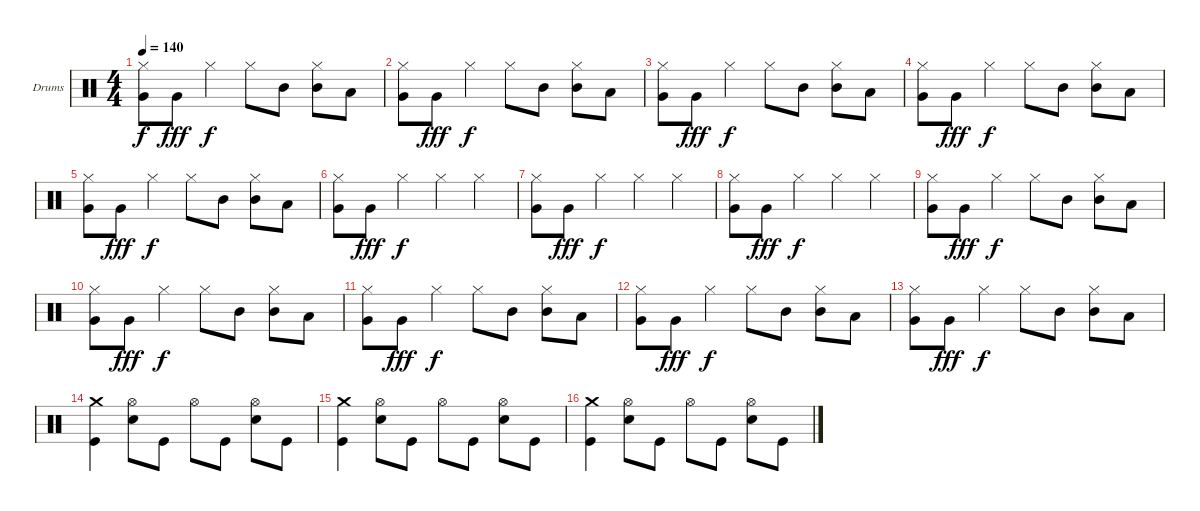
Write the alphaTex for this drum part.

\bracketExtendMode groupsimilarinstruments
\firstSystemTrackNameOrientation horizontal
\otherSystemsTrackNameOrientation horizontal
\track ("Ударные" "Drums") {instrument percussion}
\staff {score}
\articulation defaults
\ts (4 4)
\tempo 140
\clef neutral
\ks c
("Hi-Hat (closed)" "Very Low Tom (hit)").8{dy f} "Very Low Tom (hit)".8{dy fff} "Hi-Hat (closed)".4{dy f} "Hi-Hat (closed)".8 "Mid Tom (hit)".8 ("Hi-Hat (closed)" "Mid Tom (hit)").8 "Low Tom (hit)".8 |
("Hi-Hat (closed)" "Very Low Tom (hit)").8 "Very Low Tom (hit)".8{dy fff} "Hi-Hat (closed)".4{dy f} "Hi-Hat (closed)".8 "Mid Tom (hit)".8 ("Hi-Hat (closed)" "Mid Tom (hit)").8 "Low Tom (hit)".8 |
("Hi-Hat (closed)" "Very Low Tom (hit)").8 "Very Low Tom (hit)".8{dy fff} "Hi-Hat (closed)".4{dy f} "Hi-Hat (closed)".8 "Mid Tom (hit)".8 ("Hi-Hat (closed)" "Mid Tom (hit)").8 "Low Tom (hit)".8 |
("Hi-Hat (closed)" "Very Low Tom (hit)").8 "Very Low Tom (hit)".8{dy fff} "Hi-Hat (closed)".4{dy f} "Hi-Hat (closed)".8 "Mid Tom (hit)".8 ("Hi-Hat (closed)" "Mid Tom (hit)").8 "Low Tom (hit)".8 |
("Hi-Hat (closed)" "Very Low Tom (hit)").8 "Very Low Tom (hit)".8{dy fff} "Hi-Hat (closed)".4{dy f} "Hi-Hat (closed)".8 "Mid Tom (hit)".8 ("Hi-Hat (closed)" "Mid Tom (hit)").8 "Low Tom (hit)".8 |
("Hi-Hat (closed)" "Very Low Tom (hit)").8 "Very Low Tom (hit)".8{dy fff} "Hi-Hat (closed)".4{dy f} "Hi-Hat (closed)".4 "Hi-Hat (closed)".4 |
("Hi-Hat (closed)" "Very Low Tom (hit)").8 "Very Low Tom (hit)".8{dy fff} "Hi-Hat (closed)".4{dy f} "Hi-Hat (closed)".4 "Hi-Hat (closed)".4 |
("Hi-Hat (closed)" "Very Low Tom (hit)").8 "Very Low Tom (hit)".8{dy fff} "Hi-Hat (closed)".4{dy f} "Hi-Hat (closed)".4 "Hi-Hat (closed)".4 |
("Hi-Hat (closed)" "Very Low Tom (hit)").8 "Very Low Tom (hit)".8{dy fff} "Hi-Hat (closed)".4{dy f} "Hi-Hat (closed)".8 "Mid Tom (hit)".8 ("Hi-Hat (closed)" "Mid Tom (hit)").8 "Low Tom (hit)".8 |
("Hi-Hat (closed)" "Very Low Tom (hit)").8 "Very Low Tom (hit)".8{dy fff} "Hi-Hat (closed)".4{dy f} "Hi-Hat (closed)".8 "Mid Tom (hit)".8 ("Hi-Hat (closed)" "Mid Tom (hit)").8 "Low Tom (hit)".8 |
("Hi-Hat (closed)" "Very Low Tom (hit)").8 "Very Low Tom (hit)".8{dy fff} "Hi-Hat (closed)".4{dy f} "Hi-Hat (closed)".8 "Mid Tom (hit)".8 ("Hi-Hat (closed)" "Mid Tom (hit)").8 "Low Tom (hit)".8 |
("Hi-Hat (closed)" "Very Low Tom (hit)").8 "Very Low Tom (hit)".8{dy fff} "Hi-Hat (closed)".4{dy f} "Hi-Hat (closed)".8 "Mid Tom (hit)".8 ("Hi-Hat (closed)" "Mid Tom (hit)").8 "Low Tom (hit)".8 |
("Hi-Hat (closed)" "Very Low Tom (hit)").8 "Very Low Tom (hit)".8{dy fff} "Hi-Hat (closed)".4{dy f} "Hi-Hat (closed)".8 "Mid Tom (hit)".8 ("Hi-Hat (closed)" "Mid Tom (hit)").8 "Low Tom (hit)".8 |
("Crash medium (hit)" "Kick (hit)").4 ("Hi-Hat (open)" "Snare (hit) 2").8 "Kick (hit)".8 "Hi-Hat (open)".8 "Kick (hit)".8 ("Hi-Hat (open)" "Snare (hit) 2").8 "Kick (hit)".8 |
("Crash medium (hit)" "Kick (hit)").4 ("Hi-Hat (open)" "Snare (hit) 2").8 "Kick (hit)".8 "Hi-Hat (open)".8 "Kick (hit)".8 ("Hi-Hat (open)" "Snare (hit) 2").8 "Kick (hit)".8 |
("Crash medium (hit)" "Kick (hit)").4 ("Hi-Hat (open)" "Snare (hit) 2").8 "Kick (hit)".8 "Hi-Hat (open)".8 "Kick (hit)".8 ("Hi-Hat (open)" "Snare (hit) 2").8 "Kick (hit)".8
